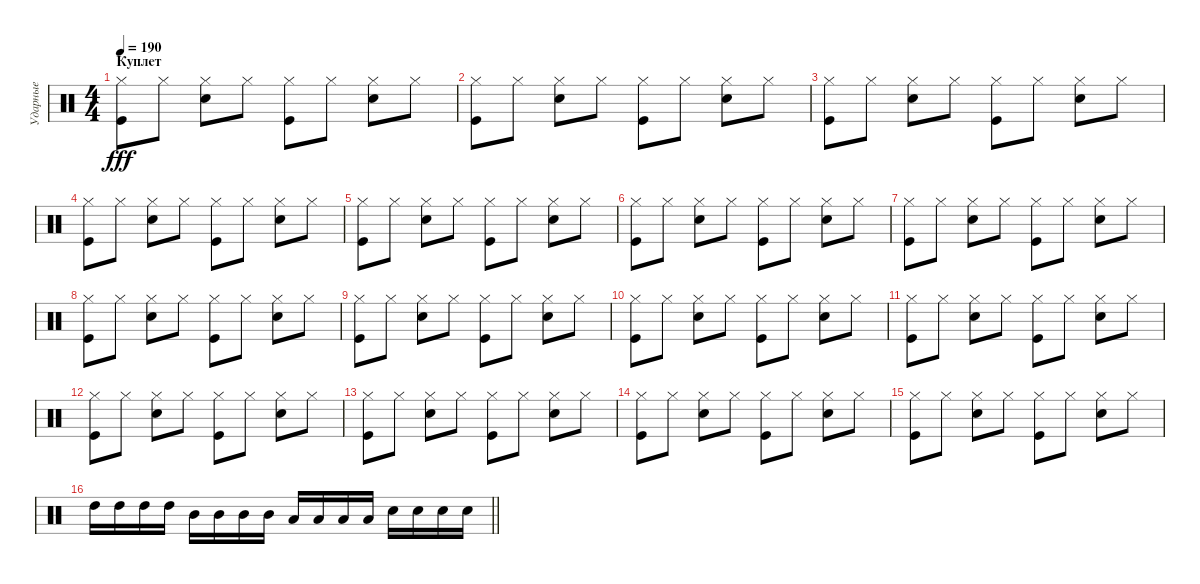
\track ("Ударные" "Ударные") {instrument percussion}
\staff {score}
\articulation defaults
\ts (4 4)
\section ("" "Куплет")
\tempo 190
\clef neutral
\ks c
("Hi-Hat (closed)" "Kick (hit)").8{dy fff} "Hi-Hat (closed)".8 ("Hi-Hat (closed)" "Electric Snare (hit)").8 "Hi-Hat (closed)".8 ("Hi-Hat (closed)" "Kick (hit)").8 "Hi-Hat (closed)".8 ("Hi-Hat (closed)" "Electric Snare (hit)").8 "Hi-Hat (closed)".8 |
("Hi-Hat (closed)" "Kick (hit)").8 "Hi-Hat (closed)".8 ("Hi-Hat (closed)" "Electric Snare (hit)").8 "Hi-Hat (closed)".8 ("Hi-Hat (closed)" "Kick (hit)").8 "Hi-Hat (closed)".8 ("Hi-Hat (closed)" "Electric Snare (hit)").8 "Hi-Hat (closed)".8 |
("Hi-Hat (closed)" "Kick (hit)").8 "Hi-Hat (closed)".8 ("Hi-Hat (closed)" "Electric Snare (hit)").8 "Hi-Hat (closed)".8 ("Hi-Hat (closed)" "Kick (hit)").8 "Hi-Hat (closed)".8 ("Hi-Hat (closed)" "Electric Snare (hit)").8 "Hi-Hat (closed)".8 |
("Hi-Hat (closed)" "Kick (hit)").8 "Hi-Hat (closed)".8 ("Hi-Hat (closed)" "Electric Snare (hit)").8 "Hi-Hat (closed)".8 ("Hi-Hat (closed)" "Kick (hit)").8 "Hi-Hat (closed)".8 ("Hi-Hat (closed)" "Electric Snare (hit)").8 "Hi-Hat (closed)".8 |
("Hi-Hat (closed)" "Kick (hit)").8 "Hi-Hat (closed)".8 ("Hi-Hat (closed)" "Electric Snare (hit)").8 "Hi-Hat (closed)".8 ("Hi-Hat (closed)" "Kick (hit)").8 "Hi-Hat (closed)".8 ("Hi-Hat (closed)" "Electric Snare (hit)").8 "Hi-Hat (closed)".8 |
("Hi-Hat (closed)" "Kick (hit)").8 "Hi-Hat (closed)".8 ("Hi-Hat (closed)" "Electric Snare (hit)").8 "Hi-Hat (closed)".8 ("Hi-Hat (closed)" "Kick (hit)").8 "Hi-Hat (closed)".8 ("Hi-Hat (closed)" "Electric Snare (hit)").8 "Hi-Hat (closed)".8 |
("Hi-Hat (closed)" "Kick (hit)").8 "Hi-Hat (closed)".8 ("Hi-Hat (closed)" "Electric Snare (hit)").8 "Hi-Hat (closed)".8 ("Hi-Hat (closed)" "Kick (hit)").8 "Hi-Hat (closed)".8 ("Hi-Hat (closed)" "Electric Snare (hit)").8 "Hi-Hat (closed)".8 |
("Hi-Hat (closed)" "Kick (hit)").8 "Hi-Hat (closed)".8 ("Hi-Hat (closed)" "Electric Snare (hit)").8 "Hi-Hat (closed)".8 ("Hi-Hat (closed)" "Kick (hit)").8 "Hi-Hat (closed)".8 ("Hi-Hat (closed)" "Electric Snare (hit)").8 "Hi-Hat (closed)".8 |
("Hi-Hat (closed)" "Kick (hit)").8 "Hi-Hat (closed)".8 ("Hi-Hat (closed)" "Electric Snare (hit)").8 "Hi-Hat (closed)".8 ("Hi-Hat (closed)" "Kick (hit)").8 "Hi-Hat (closed)".8 ("Hi-Hat (closed)" "Electric Snare (hit)").8 "Hi-Hat (closed)".8 |
("Hi-Hat (closed)" "Kick (hit)").8 "Hi-Hat (closed)".8 ("Hi-Hat (closed)" "Electric Snare (hit)").8 "Hi-Hat (closed)".8 ("Hi-Hat (closed)" "Kick (hit)").8 "Hi-Hat (closed)".8 ("Hi-Hat (closed)" "Electric Snare (hit)").8 "Hi-Hat (closed)".8 |
("Hi-Hat (closed)" "Kick (hit)").8 "Hi-Hat (closed)".8 ("Hi-Hat (closed)" "Electric Snare (hit)").8 "Hi-Hat (closed)".8 ("Hi-Hat (closed)" "Kick (hit)").8 "Hi-Hat (closed)".8 ("Hi-Hat (closed)" "Electric Snare (hit)").8 "Hi-Hat (closed)".8 |
("Hi-Hat (closed)" "Kick (hit)").8 "Hi-Hat (closed)".8 ("Hi-Hat (closed)" "Electric Snare (hit)").8 "Hi-Hat (closed)".8 ("Hi-Hat (closed)" "Kick (hit)").8 "Hi-Hat (closed)".8 ("Hi-Hat (closed)" "Electric Snare (hit)").8 "Hi-Hat (closed)".8 |
("Hi-Hat (closed)" "Kick (hit)").8 "Hi-Hat (closed)".8 ("Hi-Hat (closed)" "Electric Snare (hit)").8 "Hi-Hat (closed)".8 ("Hi-Hat (closed)" "Kick (hit)").8 "Hi-Hat (closed)".8 ("Hi-Hat (closed)" "Electric Snare (hit)").8 "Hi-Hat (closed)".8 |
("Hi-Hat (closed)" "Kick (hit)").8 "Hi-Hat (closed)".8 ("Hi-Hat (closed)" "Electric Snare (hit)").8 "Hi-Hat (closed)".8 ("Hi-Hat (closed)" "Kick (hit)").8 "Hi-Hat (closed)".8 ("Hi-Hat (closed)" "Electric Snare (hit)").8 "Hi-Hat (closed)".8 |
("Hi-Hat (closed)" "Kick (hit)").8 "Hi-Hat (closed)".8 ("Hi-Hat (closed)" "Electric Snare (hit)").8 "Hi-Hat (closed)".8 ("Hi-Hat (closed)" "Kick (hit)").8 "Hi-Hat (closed)".8 ("Hi-Hat (closed)" "Electric Snare (hit)").8 "Hi-Hat (closed)".8 |
\barLineRight lightlight "High Tom (hit)".16 "High Tom (hit)".16 "High Tom (hit)".16 "High Tom (hit)".16 "Mid Tom (hit)".16 "Mid Tom (hit)".16 "Mid Tom (hit)".16 "Mid Tom (hit)".16 "Low Tom (hit)".16 "Low Tom (hit)".16 "Low Tom (hit)".16 "Low Tom (hit)".16 "Electric Snare (hit)".16 "Electric Snare (hit)".16 "Electric Snare (hit)".16 "Electric Snare (hit)".16
